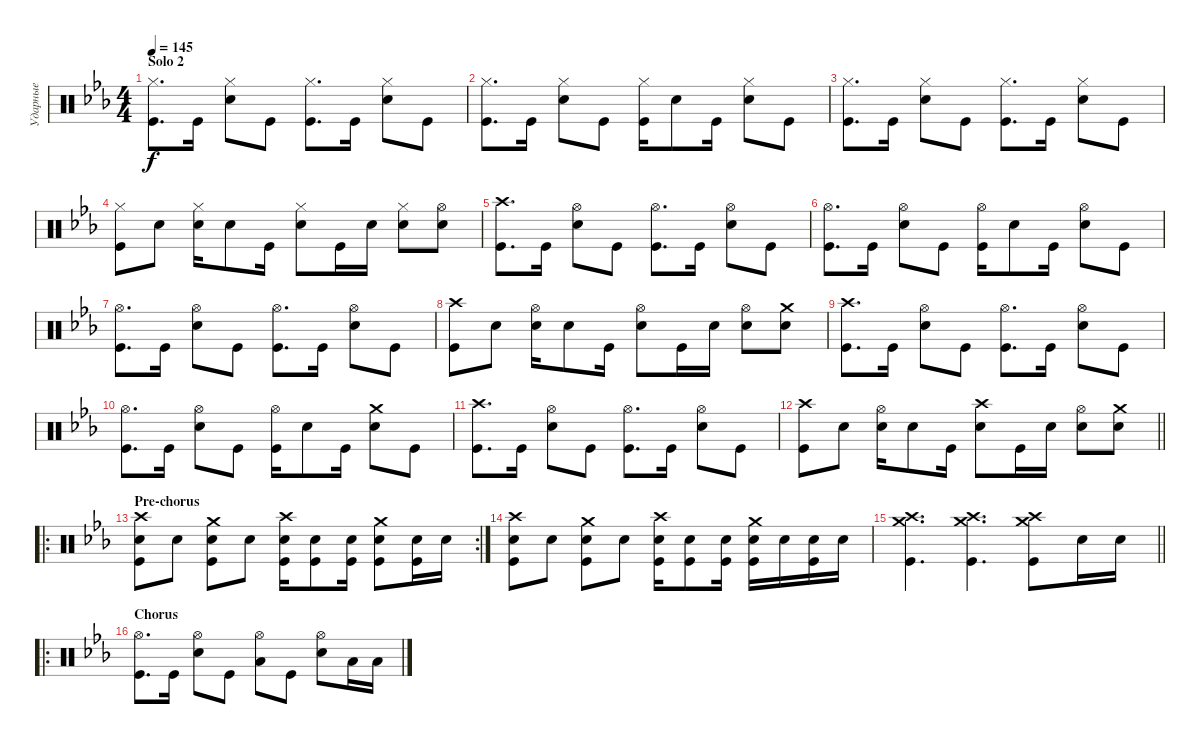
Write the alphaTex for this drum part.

\track ("Ударные" "Ударные") {instrument percussion}
\staff {score}
\articulation defaults
\ts (4 4)
\section ("" "Solo 2")
\tempo 145
\clef neutral
\ks cminor
("Hi-Hat (closed)" "Kick (hit)").8{d dy f} "Kick (hit)".16 ("Hi-Hat (closed)" "Snare (hit) 2").8 "Kick (hit)".8 ("Hi-Hat (closed)" "Kick (hit)").8{d} "Kick (hit)".16 ("Hi-Hat (closed)" "Snare (hit) 2").8 "Kick (hit)".8 |
("Hi-Hat (closed)" "Kick (hit)").8{d} "Kick (hit)".16 ("Hi-Hat (closed)" "Snare (hit) 2").8 "Kick (hit)".8 ("Hi-Hat (closed)" "Kick (hit)").16 "Snare (hit) 2".8 "Kick (hit)".16 ("Hi-Hat (closed)" "Snare (hit) 2").8 "Kick (hit)".8 |
("Hi-Hat (closed)" "Kick (hit)").8{d} "Kick (hit)".16 ("Hi-Hat (closed)" "Snare (hit) 2").8 "Kick (hit)".8 ("Hi-Hat (closed)" "Kick (hit)").8{d} "Kick (hit)".16 ("Hi-Hat (closed)" "Snare (hit) 2").8 "Kick (hit)".8 |
("Hi-Hat (closed)" "Kick (hit)").8 "Snare (hit) 2".8 ("Hi-Hat (closed)" "Snare (hit) 2").16 "Snare (hit) 2".8 "Kick (hit)".16 ("Hi-Hat (closed)" "Snare (hit) 2").8 "Kick (hit)".16 "Snare (hit) 2".16 ("Hi-Hat (closed)" "Snare (hit) 2").8 ("Hi-Hat (open)" "Snare (hit) 2").8 |
("Crash high (hit)" "Kick (hit)").8{d} "Kick (hit)".16 ("Hi-Hat (open)" "Snare (hit) 2").8 "Kick (hit)".8 ("Hi-Hat (open)" "Kick (hit)").8{d} "Kick (hit)".16 ("Hi-Hat (open)" "Snare (hit) 2").8 "Kick (hit)".8 |
("Hi-Hat (open)" "Kick (hit)").8{d} "Kick (hit)".16 ("Hi-Hat (open)" "Snare (hit) 2").8 "Kick (hit)".8 ("Hi-Hat (open)" "Kick (hit)").16 "Snare (hit) 2".8 "Kick (hit)".16 ("Hi-Hat (open)" "Snare (hit) 2").8 "Kick (hit)".8 |
("Hi-Hat (open)" "Kick (hit)").8{d} "Kick (hit)".16 ("Hi-Hat (open)" "Snare (hit) 2").8 "Kick (hit)".8 ("Hi-Hat (open)" "Kick (hit)").8{d} "Kick (hit)".16 ("Hi-Hat (open)" "Snare (hit) 2").8 "Kick (hit)".8 |
("Crash high (hit)" "Kick (hit)").8 "Snare (hit) 2".8 ("Hi-Hat (open)" "Snare (hit) 2").16 "Snare (hit) 2".8 "Kick (hit)".16 ("Hi-Hat (open)" "Snare (hit) 2").8 "Kick (hit)".16 "Snare (hit) 2".16 ("Hi-Hat (open)" "Snare (hit) 2").8 ("Crash medium (hit)" "Snare (hit) 2").8 |
("Crash high (hit)" "Kick (hit)").8{d} "Kick (hit)".16 ("Hi-Hat (open)" "Snare (hit) 2").8 "Kick (hit)".8 ("Hi-Hat (open)" "Kick (hit)").8{d} "Kick (hit)".16 ("Hi-Hat (open)" "Snare (hit) 2").8 "Kick (hit)".8 |
("Hi-Hat (open)" "Kick (hit)").8{d} "Kick (hit)".16 ("Hi-Hat (open)" "Snare (hit) 2").8 "Kick (hit)".8 ("Hi-Hat (open)" "Kick (hit)").16 "Snare (hit) 2".8 "Kick (hit)".16 ("Crash medium (hit)" "Snare (hit) 2").8 "Kick (hit)".8 |
("Crash high (hit)" "Kick (hit)").8{d} "Kick (hit)".16 ("Hi-Hat (open)" "Snare (hit) 2").8 "Kick (hit)".8 ("Hi-Hat (open)" "Kick (hit)").8{d} "Kick (hit)".16 ("Hi-Hat (open)" "Snare (hit) 2").8 "Kick (hit)".8 |
\barLineRight lightlight
("Crash high (hit)" "Kick (hit)").8 "Snare (hit) 2".8 ("Hi-Hat (open)" "Snare (hit) 2").16 "Snare (hit) 2".8 "Kick (hit)".16 ("Crash high (hit)" "Snare (hit) 2").8 "Kick (hit)".16 "Snare (hit) 2".16 ("Hi-Hat (open)" "Snare (hit) 2").8 ("Crash medium (hit)" "Snare (hit) 2").8 |
\ro
\rc 2
\section ("" "Pre-chorus")
("Crash high (hit)" "Snare (hit) 2" "Kick (hit)").8 "Snare (hit) 2".8 ("Crash medium (hit)" "Snare (hit) 2" "Kick (hit)").8 "Snare (hit) 2".8 ("Crash high (hit)" "Snare (hit) 2" "Kick (hit)").16 ("Snare (hit) 2" "Kick (hit)").8 ("Snare (hit) 2" "Kick (hit)").16 ("Crash medium (hit)" "Snare (hit) 2" "Kick (hit)").8 ("Snare (hit) 2" "Kick (hit)").16 "Snare (hit) 2".16 |
("Crash high (hit)" "Snare (hit) 2" "Kick (hit)").8 "Snare (hit) 2".8 ("Crash medium (hit)" "Snare (hit) 2" "Kick (hit)").8 "Snare (hit) 2".8 ("Crash high (hit)" "Snare (hit) 2" "Kick (hit)").16 ("Snare (hit) 2" "Kick (hit)").8 ("Snare (hit) 2" "Kick (hit)").16 ("Crash medium (hit)" "Snare (hit) 2" "Kick (hit)").16 "Snare (hit) 2".16 ("Snare (hit) 2" "Kick (hit)").16 "Snare (hit) 2".16 |
\barLineRight lightlight
("Crash medium (hit)" "Crash high (hit)" "Kick (hit)").4{d} ("Crash medium (hit)" "Crash high (hit)" "Kick (hit)").4{d} ("Crash medium (hit)" "Crash high (hit)" "Kick (hit)").8 "Snare (hit) 2".16 "Snare (hit) 2".16 |
\ro
\section ("" "Chorus")
("Hi-Hat (open)" "Kick (hit)").8{d} "Kick (hit)".16 ("Hi-Hat (open)" "Snare (hit) 2").8 "Kick (hit)".8 ("Hi-Hat (open)" "Low Floor Tom (hit)").8 "Kick (hit)".8 ("Hi-Hat (open)" "Snare (hit) 2").8 "Low Floor Tom (hit)".16 "Low Floor Tom (hit)".16
